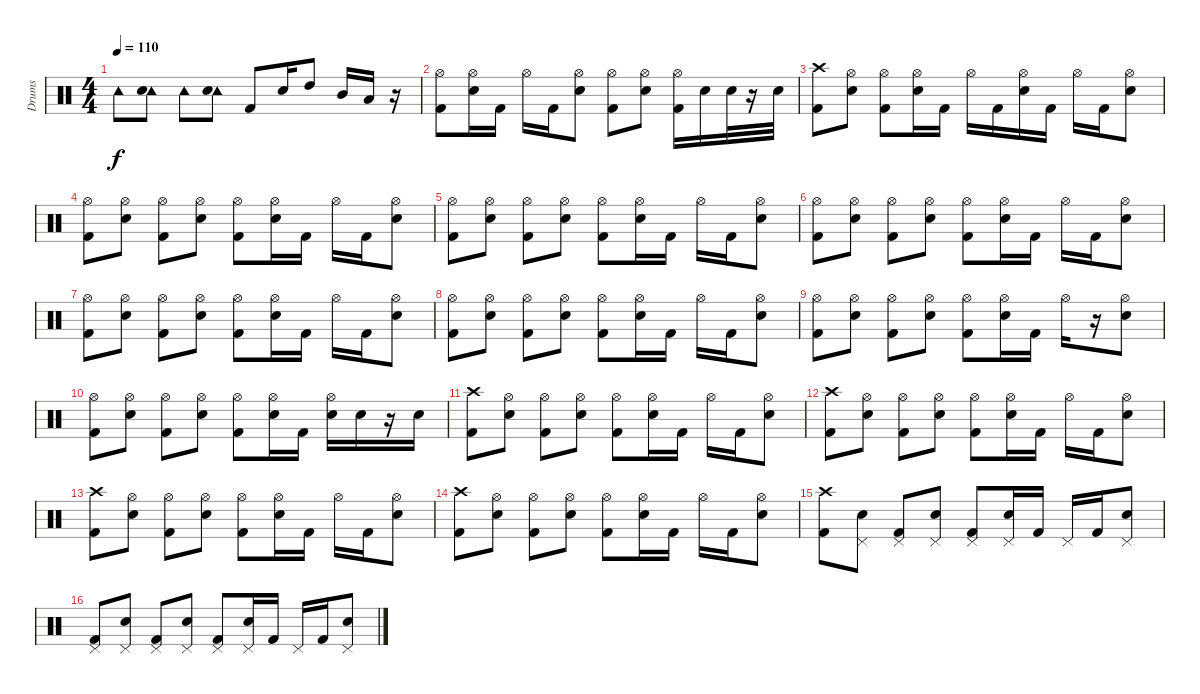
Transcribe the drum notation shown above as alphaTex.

\track ("Drums" "Drums") {instrument percussion}
\staff {score}
\articulation defaults
\ts (4 4)
\tempo 110
\clef neutral
\ks c "Tambourine (hit)".8{dy f}
("Tambourine (hit)" "Hand Clap (hit)").8 "Tambourine (hit)".8 ("Tambourine (hit)" "Hand Clap (hit)").8 "Kick (hit) 2".8 "Electric Snare (hit)".16 "High Tom (hit)".8 "Mid Tom (hit)".16 "Low Tom (hit)".16 r.16 |
("Hi-Hat (open)" "Kick (hit) 2").8 ("Hi-Hat (open)" "Electric Snare (hit)").16 "Kick (hit) 2".16 "Hi-Hat (open)".16 "Kick (hit) 2".16 ("Hi-Hat (open)" "Electric Snare (hit)").8 ("Hi-Hat (open)" "Kick (hit) 2").8 ("Hi-Hat (open)" "Electric Snare (hit)").8 ("Hi-Hat (open)" "Kick (hit) 2").16 "Electric Snare (hit)".16 "Electric Snare (hit)".32 r.16 "Electric Snare (hit)".32 |
("Crash high (hit)" "Kick (hit) 2").8 ("Hi-Hat (open)" "Electric Snare (hit)").8 ("Hi-Hat (open)" "Kick (hit) 2").8 ("Hi-Hat (open)" "Electric Snare (hit)").16 "Kick (hit) 2".16 "Hi-Hat (open)".16 "Kick (hit) 2".16 ("Hi-Hat (open)" "Electric Snare (hit)").16 "Kick (hit) 2".16 "Hi-Hat (open)".16 "Kick (hit) 2".16 ("Hi-Hat (open)" "Electric Snare (hit)").8 |
("Hi-Hat (open)" "Kick (hit) 2").8 ("Hi-Hat (open)" "Electric Snare (hit)").8 ("Hi-Hat (open)" "Kick (hit) 2").8 ("Hi-Hat (open)" "Electric Snare (hit)").8 ("Hi-Hat (open)" "Kick (hit) 2").8 ("Hi-Hat (open)" "Electric Snare (hit)").16 "Kick (hit) 2".16 "Hi-Hat (open)".16 "Kick (hit) 2".16 ("Hi-Hat (open)" "Electric Snare (hit)").8 |
("Hi-Hat (open)" "Kick (hit) 2").8 ("Hi-Hat (open)" "Electric Snare (hit)").8 ("Hi-Hat (open)" "Kick (hit) 2").8 ("Hi-Hat (open)" "Electric Snare (hit)").8 ("Hi-Hat (open)" "Kick (hit) 2").8 ("Hi-Hat (open)" "Electric Snare (hit)").16 "Kick (hit) 2".16 "Hi-Hat (open)".16 "Kick (hit) 2".16 ("Hi-Hat (open)" "Electric Snare (hit)").8 |
("Hi-Hat (open)" "Kick (hit) 2").8 ("Hi-Hat (open)" "Electric Snare (hit)").8 ("Hi-Hat (open)" "Kick (hit) 2").8 ("Hi-Hat (open)" "Electric Snare (hit)").8 ("Hi-Hat (open)" "Kick (hit) 2").8 ("Hi-Hat (open)" "Electric Snare (hit)").16 "Kick (hit) 2".16 "Hi-Hat (open)".16 "Kick (hit) 2".16 ("Hi-Hat (open)" "Electric Snare (hit)").8 |
("Hi-Hat (open)" "Kick (hit) 2").8 ("Hi-Hat (open)" "Electric Snare (hit)").8 ("Hi-Hat (open)" "Kick (hit) 2").8 ("Hi-Hat (open)" "Electric Snare (hit)").8 ("Hi-Hat (open)" "Kick (hit) 2").8 ("Hi-Hat (open)" "Electric Snare (hit)").16 "Kick (hit) 2".16 "Hi-Hat (open)".16 "Kick (hit) 2".16 ("Hi-Hat (open)" "Electric Snare (hit)").8 |
("Hi-Hat (open)" "Kick (hit) 2").8 ("Hi-Hat (open)" "Electric Snare (hit)").8 ("Hi-Hat (open)" "Kick (hit) 2").8 ("Hi-Hat (open)" "Electric Snare (hit)").8 ("Hi-Hat (open)" "Kick (hit) 2").8 ("Hi-Hat (open)" "Electric Snare (hit)").16 "Kick (hit) 2".16 "Hi-Hat (open)".16 "Kick (hit) 2".16 ("Hi-Hat (open)" "Electric Snare (hit)").8 |
("Hi-Hat (open)" "Kick (hit) 2").8 ("Hi-Hat (open)" "Electric Snare (hit)").8 ("Hi-Hat (open)" "Kick (hit) 2").8 ("Hi-Hat (open)" "Electric Snare (hit)").8 ("Hi-Hat (open)" "Kick (hit) 2").8 ("Hi-Hat (open)" "Electric Snare (hit)").16 "Kick (hit) 2".16 "Hi-Hat (open)".16 r.16 ("Hi-Hat (open)" "Electric Snare (hit)").8 |
("Hi-Hat (open)" "Kick (hit) 2").8 ("Hi-Hat (open)" "Electric Snare (hit)").8 ("Hi-Hat (open)" "Kick (hit) 2").8 ("Hi-Hat (open)" "Electric Snare (hit)").8 ("Hi-Hat (open)" "Kick (hit) 2").8 ("Hi-Hat (open)" "Electric Snare (hit)").16 "Kick (hit) 2".16 ("Hi-Hat (open)" "Electric Snare (hit)").16 "Electric Snare (hit)".16 r.16 "Electric Snare (hit)".16 |
("Crash high (hit)" "Kick (hit) 2").8 ("Hi-Hat (open)" "Electric Snare (hit)").8 ("Hi-Hat (open)" "Kick (hit) 2").8 ("Hi-Hat (open)" "Electric Snare (hit)").8 ("Hi-Hat (open)" "Kick (hit) 2").8 ("Hi-Hat (open)" "Electric Snare (hit)").16 "Kick (hit) 2".16 "Hi-Hat (open)".16 "Kick (hit) 2".16 ("Hi-Hat (open)" "Electric Snare (hit)").8 |
("Crash high (hit)" "Kick (hit) 2").8 ("Hi-Hat (open)" "Electric Snare (hit)").8 ("Hi-Hat (open)" "Kick (hit) 2").8 ("Hi-Hat (open)" "Electric Snare (hit)").8 ("Hi-Hat (open)" "Kick (hit) 2").8 ("Hi-Hat (open)" "Electric Snare (hit)").16 "Kick (hit) 2".16 "Hi-Hat (open)".16 "Kick (hit) 2".16 ("Hi-Hat (open)" "Electric Snare (hit)").8 |
("Crash high (hit)" "Kick (hit) 2").8 ("Hi-Hat (open)" "Electric Snare (hit)").8 ("Hi-Hat (open)" "Kick (hit) 2").8 ("Hi-Hat (open)" "Electric Snare (hit)").8 ("Hi-Hat (open)" "Kick (hit) 2").8 ("Hi-Hat (open)" "Electric Snare (hit)").16 "Kick (hit) 2".16 "Hi-Hat (open)".16 "Kick (hit) 2".16 ("Hi-Hat (open)" "Electric Snare (hit)").8 |
("Crash high (hit)" "Kick (hit) 2").8 ("Hi-Hat (open)" "Electric Snare (hit)").8 ("Hi-Hat (open)" "Kick (hit) 2").8 ("Hi-Hat (open)" "Electric Snare (hit)").8 ("Hi-Hat (open)" "Kick (hit) 2").8 ("Hi-Hat (open)" "Electric Snare (hit)").16 "Kick (hit) 2".16 "Hi-Hat (open)".16 "Kick (hit) 2".16 ("Hi-Hat (open)" "Electric Snare (hit)").8 |
("Crash high (hit)" "Kick (hit) 2").8 ("Pedal Hi-Hat (hit)" "Electric Snare (hit)").8 ("Pedal Hi-Hat (hit)" "Kick (hit) 2").8 ("Pedal Hi-Hat (hit)" "Electric Snare (hit)").8 ("Pedal Hi-Hat (hit)" "Kick (hit) 2").8 ("Pedal Hi-Hat (hit)" "Electric Snare (hit)").16 "Kick (hit) 2".16 "Pedal Hi-Hat (hit)".16 "Kick (hit) 2".16 ("Pedal Hi-Hat (hit)" "Electric Snare (hit)").8 |
("Pedal Hi-Hat (hit)" "Kick (hit) 2").8 ("Pedal Hi-Hat (hit)" "Electric Snare (hit)").8 ("Pedal Hi-Hat (hit)" "Kick (hit) 2").8 ("Pedal Hi-Hat (hit)" "Electric Snare (hit)").8 ("Pedal Hi-Hat (hit)" "Kick (hit) 2").8 ("Pedal Hi-Hat (hit)" "Electric Snare (hit)").16 "Kick (hit) 2".16 "Pedal Hi-Hat (hit)".16 "Kick (hit) 2".16 ("Pedal Hi-Hat (hit)" "Electric Snare (hit)").8
